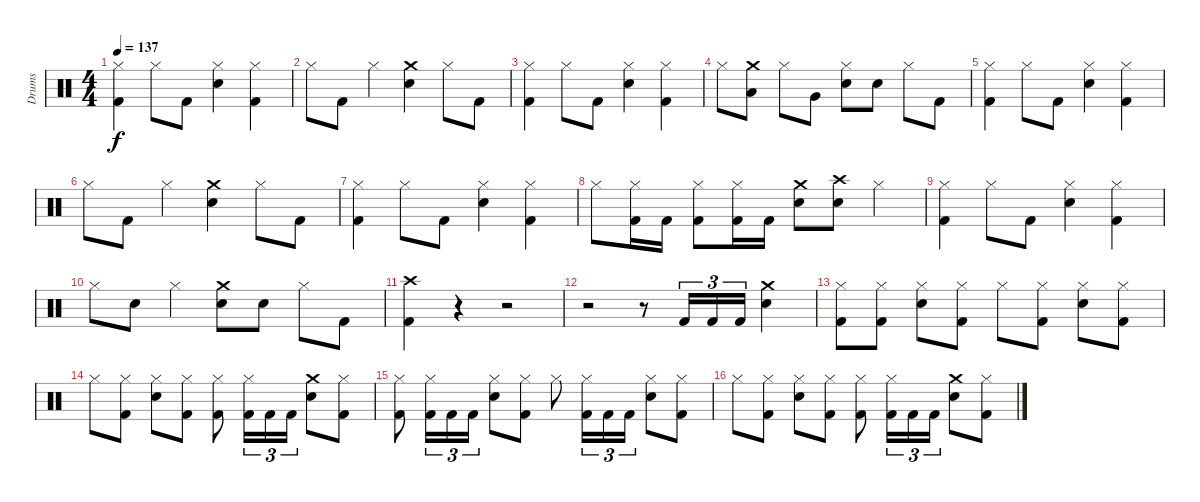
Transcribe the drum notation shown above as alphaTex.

\track ("Drums" "Drums") {instrument percussion}
\staff {score}
\articulation defaults
\ts (4 4)
\tempo 137
\clef neutral
\ks c
("Hi-Hat (closed)" "Kick (hit) 2").4{dy f} "Hi-Hat (closed)".8 "Kick (hit) 2".8 ("Hi-Hat (closed)" "Electric Snare (hit)").4 ("Hi-Hat (closed)" "Kick (hit) 2").4 |
"Hi-Hat (closed)".8 "Kick (hit) 2".8 "Hi-Hat (closed)".4 ("Crash medium (hit)" "Electric Snare (hit)").4 "Hi-Hat (closed)".8 "Kick (hit) 2".8 |
("Hi-Hat (closed)" "Kick (hit) 2").4 "Hi-Hat (closed)".8 "Kick (hit) 2".8 ("Hi-Hat (closed)" "Electric Snare (hit)").4 ("Hi-Hat (closed)" "Kick (hit) 2").4 |
"Hi-Hat (closed)".8 ("Crash medium (hit)" "Low Tom (hit)").8 "Hi-Hat (closed)".8 "Very Low Tom (hit)".8 ("Hi-Hat (closed)" "Electric Snare (hit)").8 "Electric Snare (hit)".8 "Hi-Hat (closed)".8 "Kick (hit) 2".8 |
("Hi-Hat (closed)" "Kick (hit) 2").4 "Hi-Hat (closed)".8 "Kick (hit) 2".8 ("Hi-Hat (closed)" "Electric Snare (hit)").4 ("Hi-Hat (closed)" "Kick (hit) 2").4 |
"Hi-Hat (closed)".8 "Kick (hit) 2".8 "Hi-Hat (closed)".4 ("Crash medium (hit)" "Electric Snare (hit)").4 "Hi-Hat (closed)".8 "Kick (hit) 2".8 |
("Hi-Hat (closed)" "Kick (hit) 2").4 "Hi-Hat (closed)".8 "Kick (hit) 2".8 ("Hi-Hat (closed)" "Electric Snare (hit)").4 ("Hi-Hat (closed)" "Kick (hit) 2").4 |
"Hi-Hat (closed)".8 ("Hi-Hat (closed)" "Kick (hit) 2").16 "Kick (hit) 2".16 ("Hi-Hat (closed)" "Kick (hit) 2").8 ("Hi-Hat (closed)" "Kick (hit) 2").16 "Kick (hit) 2".16 ("Crash medium (hit)" "Electric Snare (hit)").8 ("Crash high (hit)" "Electric Snare (hit)").8 "Hi-Hat (closed)".4 |
("Hi-Hat (closed)" "Kick (hit) 2").4 "Hi-Hat (closed)".8 "Kick (hit) 2".8 ("Hi-Hat (closed)" "Electric Snare (hit)").4 ("Hi-Hat (closed)" "Kick (hit) 2").4 |
"Hi-Hat (closed)".8 "Electric Snare (hit)".8 "Hi-Hat (closed)".4 ("Crash medium (hit)" "Electric Snare (hit)").8 "Electric Snare (hit)".8 "Hi-Hat (closed)".8 "Kick (hit) 2".8 |
("Crash high (hit)" "Kick (hit) 2").4 r.4 r.2 |
r.2 r.8 "Kick (hit) 2".16{tu (3 2)} "Kick (hit) 2".16{tu (3 2)} "Kick (hit) 2".16{tu (3 2)} ("Crash medium (hit)" "Electric Snare (hit)").4 |
("Hi-Hat (closed)" "Kick (hit) 2").8 ("Hi-Hat (closed)" "Kick (hit) 2").8 ("Hi-Hat (closed)" "Electric Snare (hit)").8 ("Hi-Hat (closed)" "Kick (hit) 2").8 "Hi-Hat (closed)".8 ("Hi-Hat (closed)" "Kick (hit) 2").8 ("Hi-Hat (closed)" "Electric Snare (hit)").8 ("Hi-Hat (closed)" "Kick (hit) 2").8 |
"Hi-Hat (closed)".8 ("Hi-Hat (closed)" "Kick (hit) 2").8 ("Hi-Hat (closed)" "Electric Snare (hit)").8 ("Hi-Hat (closed)" "Kick (hit) 2").8 ("Hi-Hat (closed)" "Kick (hit) 2").8 ("Hi-Hat (closed)" "Kick (hit) 2").16{tu (3 2)} "Kick (hit) 2".16{tu (3 2)} "Kick (hit) 2".16{tu (3 2)} ("Crash medium (hit)" "Electric Snare (hit)").8 ("Hi-Hat (closed)" "Kick (hit) 2").8 |
("Hi-Hat (closed)" "Kick (hit) 2").8 ("Hi-Hat (closed)" "Kick (hit) 2").16{tu (3 2)} "Kick (hit) 2".16{tu (3 2)} "Kick (hit) 2".16{tu (3 2)} ("Hi-Hat (closed)" "Electric Snare (hit)").8 ("Hi-Hat (closed)" "Kick (hit) 2").8 "Hi-Hat (closed)".8 ("Hi-Hat (closed)" "Kick (hit) 2").16{tu (3 2)} "Kick (hit) 2".16{tu (3 2)} "Kick (hit) 2".16{tu (3 2)} ("Hi-Hat (closed)" "Electric Snare (hit)").8 ("Hi-Hat (closed)" "Kick (hit) 2").8 |
"Hi-Hat (closed)".8 ("Hi-Hat (closed)" "Kick (hit) 2").8 ("Hi-Hat (closed)" "Electric Snare (hit)").8 ("Hi-Hat (closed)" "Kick (hit) 2").8 ("Hi-Hat (closed)" "Kick (hit) 2").8 ("Hi-Hat (closed)" "Kick (hit) 2").16{tu (3 2)} "Kick (hit) 2".16{tu (3 2)} "Kick (hit) 2".16{tu (3 2)} ("Crash medium (hit)" "Electric Snare (hit)").8 ("Hi-Hat (closed)" "Kick (hit) 2").8
